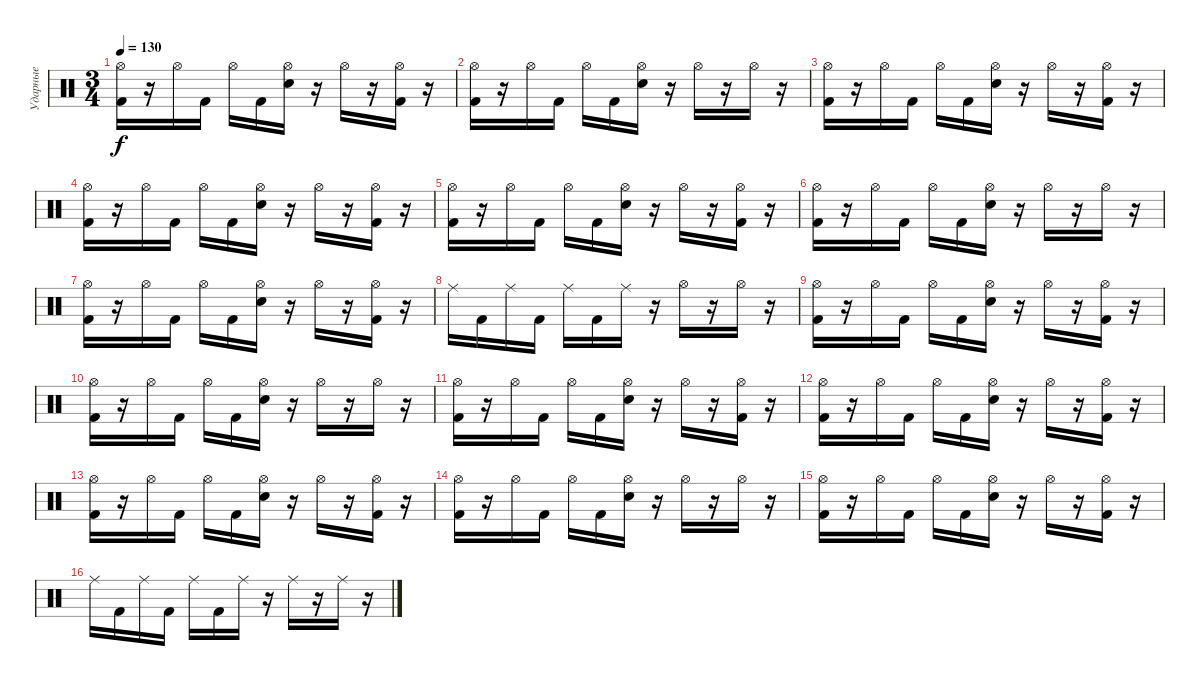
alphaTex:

\track ("Ударные" "Ударные") {instrument percussion}
\staff {score}
\articulation defaults
\ts (3 4)
\tempo 130
\clef neutral
\ks c
("Hi-Hat (open)" "Kick (hit) 2").16{dy f} r.16 "Hi-Hat (open)".16 "Kick (hit) 2".16 "Hi-Hat (open)".16 "Kick (hit) 2".16 ("Snare (hit) 2" "Hi-Hat (open)").16 r.16 "Hi-Hat (open)".16 r.16 ("Hi-Hat (open)" "Kick (hit) 2").16 r.16 |
("Hi-Hat (open)" "Kick (hit) 2").16 r.16 "Hi-Hat (open)".16 "Kick (hit) 2".16 "Hi-Hat (open)".16 "Kick (hit) 2".16 ("Snare (hit) 2" "Hi-Hat (open)").16 r.16 "Hi-Hat (open)".16 r.16 "Hi-Hat (open)".16 r.16 |
("Hi-Hat (open)" "Kick (hit) 2").16 r.16 "Hi-Hat (open)".16 "Kick (hit) 2".16 "Hi-Hat (open)".16 "Kick (hit) 2".16 ("Snare (hit) 2" "Hi-Hat (open)").16 r.16 "Hi-Hat (open)".16 r.16 ("Hi-Hat (open)" "Kick (hit) 2").16 r.16 |
("Hi-Hat (open)" "Kick (hit) 2").16 r.16 "Hi-Hat (open)".16 "Kick (hit) 2".16 "Hi-Hat (open)".16 "Kick (hit) 2".16 ("Snare (hit) 2" "Hi-Hat (open)").16 r.16 "Hi-Hat (open)".16 r.16 ("Hi-Hat (open)" "Kick (hit) 2").16 r.16 |
("Hi-Hat (open)" "Kick (hit) 2").16 r.16 "Hi-Hat (open)".16 "Kick (hit) 2".16 "Hi-Hat (open)".16 "Kick (hit) 2".16 ("Snare (hit) 2" "Hi-Hat (open)").16 r.16 "Hi-Hat (open)".16 r.16 ("Hi-Hat (open)" "Kick (hit) 2").16 r.16 |
("Hi-Hat (open)" "Kick (hit) 2").16 r.16 "Hi-Hat (open)".16 "Kick (hit) 2".16 "Hi-Hat (open)".16 "Kick (hit) 2".16 ("Snare (hit) 2" "Hi-Hat (open)").16 r.16 "Hi-Hat (open)".16 r.16 "Hi-Hat (open)".16 r.16 |
("Hi-Hat (open)" "Kick (hit) 2").16 r.16 "Hi-Hat (open)".16 "Kick (hit) 2".16 "Hi-Hat (open)".16 "Kick (hit) 2".16 ("Snare (hit) 2" "Hi-Hat (open)").16 r.16 "Hi-Hat (open)".16 r.16 ("Hi-Hat (open)" "Kick (hit) 2").16 r.16 |
"Ride (middle)".16 "Kick (hit) 2".16 "Ride (middle)".16 "Kick (hit) 2".16 "Ride (middle)".16 "Kick (hit) 2".16 "Ride (middle)".16 r.16 "Hi-Hat (open)".16 r.16 "Hi-Hat (open)".16 r.16 |
("Hi-Hat (open)" "Kick (hit) 2").16 r.16 "Hi-Hat (open)".16 "Kick (hit) 2".16 "Hi-Hat (open)".16 "Kick (hit) 2".16 ("Snare (hit) 2" "Hi-Hat (open)").16 r.16 "Hi-Hat (open)".16 r.16 ("Hi-Hat (open)" "Kick (hit) 2").16 r.16 |
("Hi-Hat (open)" "Kick (hit) 2").16 r.16 "Hi-Hat (open)".16 "Kick (hit) 2".16 "Hi-Hat (open)".16 "Kick (hit) 2".16 ("Snare (hit) 2" "Hi-Hat (open)").16 r.16 "Hi-Hat (open)".16 r.16 "Hi-Hat (open)".16 r.16 |
("Hi-Hat (open)" "Kick (hit) 2").16 r.16 "Hi-Hat (open)".16 "Kick (hit) 2".16 "Hi-Hat (open)".16 "Kick (hit) 2".16 ("Snare (hit) 2" "Hi-Hat (open)").16 r.16 "Hi-Hat (open)".16 r.16 ("Hi-Hat (open)" "Kick (hit) 2").16 r.16 |
("Hi-Hat (open)" "Kick (hit) 2").16 r.16 "Hi-Hat (open)".16 "Kick (hit) 2".16 "Hi-Hat (open)".16 "Kick (hit) 2".16 ("Snare (hit) 2" "Hi-Hat (open)").16 r.16 "Hi-Hat (open)".16 r.16 ("Hi-Hat (open)" "Kick (hit) 2").16 r.16 |
("Hi-Hat (open)" "Kick (hit) 2").16 r.16 "Hi-Hat (open)".16 "Kick (hit) 2".16 "Hi-Hat (open)".16 "Kick (hit) 2".16 ("Snare (hit) 2" "Hi-Hat (open)").16 r.16 "Hi-Hat (open)".16 r.16 ("Hi-Hat (open)" "Kick (hit) 2").16 r.16 |
("Hi-Hat (open)" "Kick (hit) 2").16 r.16 "Hi-Hat (open)".16 "Kick (hit) 2".16 "Hi-Hat (open)".16 "Kick (hit) 2".16 ("Snare (hit) 2" "Hi-Hat (open)").16 r.16 "Hi-Hat (open)".16 r.16 "Hi-Hat (open)".16 r.16 |
("Hi-Hat (open)" "Kick (hit) 2").16 r.16 "Hi-Hat (open)".16 "Kick (hit) 2".16 "Hi-Hat (open)".16 "Kick (hit) 2".16 ("Snare (hit) 2" "Hi-Hat (open)").16 r.16 "Hi-Hat (open)".16 r.16 ("Hi-Hat (open)" "Kick (hit) 2").16 r.16 |
"Ride (middle)".16 "Kick (hit) 2".16 "Ride (middle)".16 "Kick (hit) 2".16 "Ride (middle)".16 "Kick (hit) 2".16 "Ride (middle)".16 r.16 "Ride (middle)".16 r.16 "Ride (middle)".16 r.16
